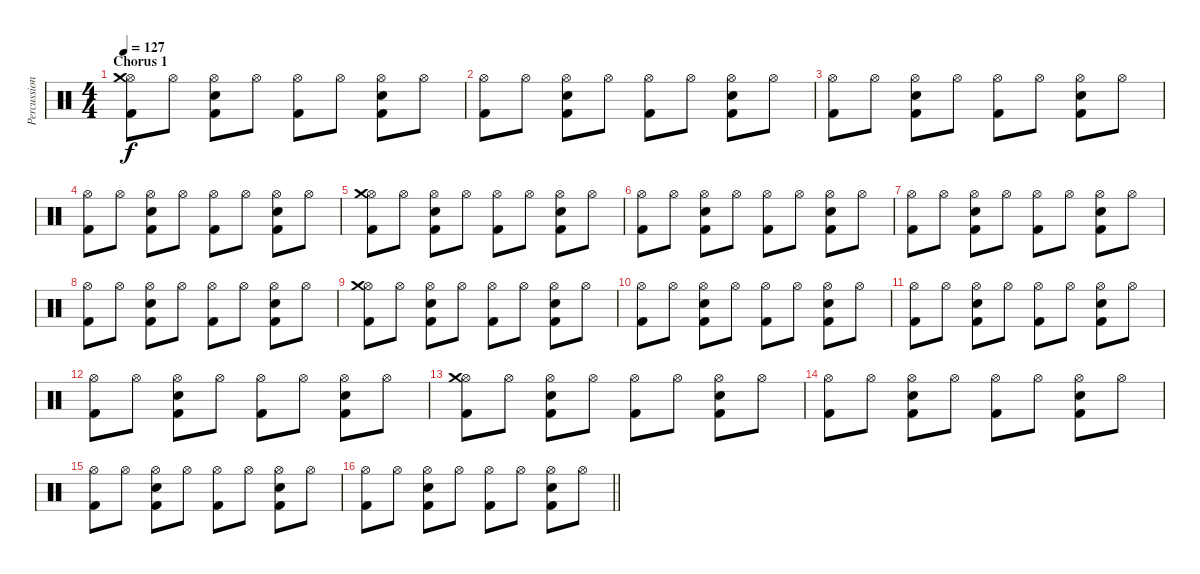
\track ("Percussion" "Percussion") {instrument percussion}
\staff {score}
\articulation defaults
\ts (4 4)
\section ("" "Chorus 1")
\tempo 127
\clef neutral
\ks c
("Hi-Hat (open)" "Crash medium (hit)" "Kick (hit) 2").8{dy f} "Hi-Hat (open)".8 ("Hi-Hat (open)" "Electric Snare (hit)" "Kick (hit) 2").8 "Hi-Hat (open)".8 ("Hi-Hat (open)" "Kick (hit) 2").8 "Hi-Hat (open)".8 ("Hi-Hat (open)" "Electric Snare (hit)" "Kick (hit) 2").8 "Hi-Hat (open)".8 |
("Hi-Hat (open)" "Kick (hit) 2").8 "Hi-Hat (open)".8 ("Hi-Hat (open)" "Electric Snare (hit)" "Kick (hit) 2").8 "Hi-Hat (open)".8 ("Hi-Hat (open)" "Kick (hit) 2").8 "Hi-Hat (open)".8 ("Hi-Hat (open)" "Electric Snare (hit)" "Kick (hit) 2").8 "Hi-Hat (open)".8 |
("Hi-Hat (open)" "Kick (hit) 2").8 "Hi-Hat (open)".8 ("Hi-Hat (open)" "Electric Snare (hit)" "Kick (hit) 2").8 "Hi-Hat (open)".8 ("Hi-Hat (open)" "Kick (hit) 2").8 "Hi-Hat (open)".8 ("Hi-Hat (open)" "Electric Snare (hit)" "Kick (hit) 2").8 "Hi-Hat (open)".8 |
("Hi-Hat (open)" "Kick (hit) 2").8 "Hi-Hat (open)".8 ("Hi-Hat (open)" "Electric Snare (hit)" "Kick (hit) 2").8 "Hi-Hat (open)".8 ("Hi-Hat (open)" "Kick (hit) 2").8 "Hi-Hat (open)".8 ("Hi-Hat (open)" "Electric Snare (hit)" "Kick (hit) 2").8 "Hi-Hat (open)".8 |
("Hi-Hat (open)" "Crash medium (hit)" "Kick (hit) 2").8 "Hi-Hat (open)".8 ("Hi-Hat (open)" "Electric Snare (hit)" "Kick (hit) 2").8 "Hi-Hat (open)".8 ("Hi-Hat (open)" "Kick (hit) 2").8 "Hi-Hat (open)".8 ("Hi-Hat (open)" "Electric Snare (hit)" "Kick (hit) 2").8 "Hi-Hat (open)".8 |
("Hi-Hat (open)" "Kick (hit) 2").8 "Hi-Hat (open)".8 ("Hi-Hat (open)" "Electric Snare (hit)" "Kick (hit) 2").8 "Hi-Hat (open)".8 ("Hi-Hat (open)" "Kick (hit) 2").8 "Hi-Hat (open)".8 ("Hi-Hat (open)" "Electric Snare (hit)" "Kick (hit) 2").8 "Hi-Hat (open)".8 |
("Hi-Hat (open)" "Kick (hit) 2").8 "Hi-Hat (open)".8 ("Hi-Hat (open)" "Electric Snare (hit)" "Kick (hit) 2").8 "Hi-Hat (open)".8 ("Hi-Hat (open)" "Kick (hit) 2").8 "Hi-Hat (open)".8 ("Hi-Hat (open)" "Electric Snare (hit)" "Kick (hit) 2").8 "Hi-Hat (open)".8 |
("Hi-Hat (open)" "Kick (hit) 2").8 "Hi-Hat (open)".8 ("Hi-Hat (open)" "Electric Snare (hit)" "Kick (hit) 2").8 "Hi-Hat (open)".8 ("Hi-Hat (open)" "Kick (hit) 2").8 "Hi-Hat (open)".8 ("Hi-Hat (open)" "Electric Snare (hit)" "Kick (hit) 2").8 "Hi-Hat (open)".8 |
("Hi-Hat (open)" "Crash medium (hit)" "Kick (hit) 2").8 "Hi-Hat (open)".8 ("Hi-Hat (open)" "Electric Snare (hit)" "Kick (hit) 2").8 "Hi-Hat (open)".8 ("Hi-Hat (open)" "Kick (hit) 2").8 "Hi-Hat (open)".8 ("Hi-Hat (open)" "Electric Snare (hit)" "Kick (hit) 2").8 "Hi-Hat (open)".8 |
("Hi-Hat (open)" "Kick (hit) 2").8 "Hi-Hat (open)".8 ("Hi-Hat (open)" "Electric Snare (hit)" "Kick (hit) 2").8 "Hi-Hat (open)".8 ("Hi-Hat (open)" "Kick (hit) 2").8 "Hi-Hat (open)".8 ("Hi-Hat (open)" "Electric Snare (hit)" "Kick (hit) 2").8 "Hi-Hat (open)".8 |
("Hi-Hat (open)" "Kick (hit) 2").8 "Hi-Hat (open)".8 ("Hi-Hat (open)" "Electric Snare (hit)" "Kick (hit) 2").8 "Hi-Hat (open)".8 ("Hi-Hat (open)" "Kick (hit) 2").8 "Hi-Hat (open)".8 ("Hi-Hat (open)" "Electric Snare (hit)" "Kick (hit) 2").8 "Hi-Hat (open)".8 |
("Hi-Hat (open)" "Kick (hit) 2").8 "Hi-Hat (open)".8 ("Hi-Hat (open)" "Electric Snare (hit)" "Kick (hit) 2").8 "Hi-Hat (open)".8 ("Hi-Hat (open)" "Kick (hit) 2").8 "Hi-Hat (open)".8 ("Hi-Hat (open)" "Electric Snare (hit)" "Kick (hit) 2").8 "Hi-Hat (open)".8 |
("Hi-Hat (open)" "Crash medium (hit)" "Kick (hit) 2").8 "Hi-Hat (open)".8 ("Hi-Hat (open)" "Electric Snare (hit)" "Kick (hit) 2").8 "Hi-Hat (open)".8 ("Hi-Hat (open)" "Kick (hit) 2").8 "Hi-Hat (open)".8 ("Hi-Hat (open)" "Electric Snare (hit)" "Kick (hit) 2").8 "Hi-Hat (open)".8 |
("Hi-Hat (open)" "Kick (hit) 2").8 "Hi-Hat (open)".8 ("Hi-Hat (open)" "Electric Snare (hit)" "Kick (hit) 2").8 "Hi-Hat (open)".8 ("Hi-Hat (open)" "Kick (hit) 2").8 "Hi-Hat (open)".8 ("Hi-Hat (open)" "Electric Snare (hit)" "Kick (hit) 2").8 "Hi-Hat (open)".8 |
("Hi-Hat (open)" "Kick (hit) 2").8 "Hi-Hat (open)".8 ("Hi-Hat (open)" "Electric Snare (hit)" "Kick (hit) 2").8 "Hi-Hat (open)".8 ("Hi-Hat (open)" "Kick (hit) 2").8 "Hi-Hat (open)".8 ("Hi-Hat (open)" "Electric Snare (hit)" "Kick (hit) 2").8 "Hi-Hat (open)".8 |
\barLineRight lightlight
("Hi-Hat (open)" "Kick (hit) 2").8 "Hi-Hat (open)".8 ("Hi-Hat (open)" "Electric Snare (hit)" "Kick (hit) 2").8 "Hi-Hat (open)".8 ("Hi-Hat (open)" "Kick (hit) 2").8 "Hi-Hat (open)".8 ("Hi-Hat (open)" "Electric Snare (hit)" "Kick (hit) 2").8 "Hi-Hat (open)".8
